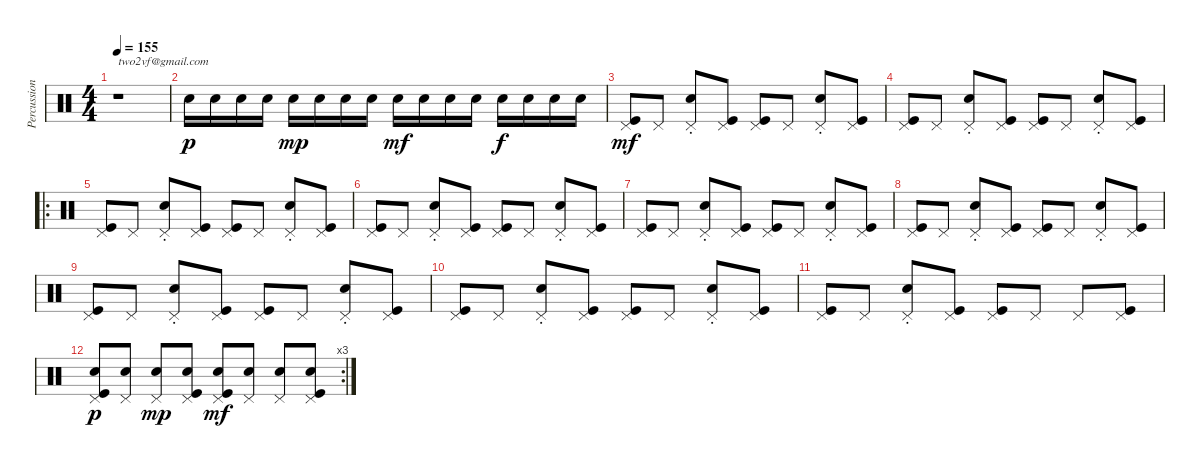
\track ("Percussions" "Percussion") {instrument percussion}
\staff {score}
\articulation defaults
\ts (4 4)
\tempo 155
\clef neutral
\ks c
r.1{txt "two2vf@gmail.com" dy p} |
"Snare (hit) 2".16 "Snare (hit) 2".16 "Snare (hit) 2".16 "Snare (hit) 2".16 "Snare (hit) 2".16{dy mp} "Snare (hit) 2".16 "Snare (hit) 2".16 "Snare (hit) 2".16 "Snare (hit) 2".16{dy mf} "Snare (hit) 2".16 "Snare (hit) 2".16 "Snare (hit) 2".16 "Snare (hit) 2".16{dy f} "Snare (hit) 2".16 "Snare (hit) 2".16 "Snare (hit) 2".16 |
("Pedal Hi-Hat (hit)" "Kick (hit)").8{dy mf} "Pedal Hi-Hat (hit)".8 ("Pedal Hi-Hat (hit)" "Electric Snare (hit)"{st}).8 ("Pedal Hi-Hat (hit)" "Kick (hit)").8 ("Pedal Hi-Hat (hit)" "Kick (hit)").8 "Pedal Hi-Hat (hit)".8 ("Pedal Hi-Hat (hit)" "Electric Snare (hit)"{st}).8 ("Pedal Hi-Hat (hit)" "Kick (hit)").8 |
("Pedal Hi-Hat (hit)" "Kick (hit)").8 "Pedal Hi-Hat (hit)".8 ("Pedal Hi-Hat (hit)" "Electric Snare (hit)"{st}).8 ("Pedal Hi-Hat (hit)" "Kick (hit)").8 ("Pedal Hi-Hat (hit)" "Kick (hit)").8 "Pedal Hi-Hat (hit)".8 ("Pedal Hi-Hat (hit)" "Electric Snare (hit)"{st}).8 ("Pedal Hi-Hat (hit)" "Kick (hit)").8 |
\ro
("Pedal Hi-Hat (hit)" "Kick (hit)").8 "Pedal Hi-Hat (hit)".8 ("Pedal Hi-Hat (hit)" "Electric Snare (hit)"{st}).8 ("Pedal Hi-Hat (hit)" "Kick (hit)").8 ("Pedal Hi-Hat (hit)" "Kick (hit)").8 "Pedal Hi-Hat (hit)".8 ("Pedal Hi-Hat (hit)" "Electric Snare (hit)"{st}).8 ("Pedal Hi-Hat (hit)" "Kick (hit)").8 |
("Pedal Hi-Hat (hit)" "Kick (hit)").8 "Pedal Hi-Hat (hit)".8 ("Pedal Hi-Hat (hit)" "Electric Snare (hit)"{st}).8 ("Pedal Hi-Hat (hit)" "Kick (hit)").8 ("Pedal Hi-Hat (hit)" "Kick (hit)").8 "Pedal Hi-Hat (hit)".8 ("Pedal Hi-Hat (hit)" "Electric Snare (hit)"{st}).8 ("Pedal Hi-Hat (hit)" "Kick (hit)").8 |
("Pedal Hi-Hat (hit)" "Kick (hit)").8 "Pedal Hi-Hat (hit)".8 ("Pedal Hi-Hat (hit)" "Electric Snare (hit)"{st}).8 ("Pedal Hi-Hat (hit)" "Kick (hit)").8 ("Pedal Hi-Hat (hit)" "Kick (hit)").8 "Pedal Hi-Hat (hit)".8 ("Pedal Hi-Hat (hit)" "Electric Snare (hit)"{st}).8 ("Pedal Hi-Hat (hit)" "Kick (hit)").8 |
("Pedal Hi-Hat (hit)" "Kick (hit)").8 "Pedal Hi-Hat (hit)".8 ("Pedal Hi-Hat (hit)" "Electric Snare (hit)"{st}).8 ("Pedal Hi-Hat (hit)" "Kick (hit)").8 ("Pedal Hi-Hat (hit)" "Kick (hit)").8 "Pedal Hi-Hat (hit)".8 ("Pedal Hi-Hat (hit)" "Electric Snare (hit)"{st}).8 ("Pedal Hi-Hat (hit)" "Kick (hit)").8 |
("Pedal Hi-Hat (hit)" "Kick (hit)").8 "Pedal Hi-Hat (hit)".8 ("Pedal Hi-Hat (hit)" "Electric Snare (hit)"{st}).8 ("Pedal Hi-Hat (hit)" "Kick (hit)").8 ("Pedal Hi-Hat (hit)" "Kick (hit)").8 "Pedal Hi-Hat (hit)".8 ("Pedal Hi-Hat (hit)" "Electric Snare (hit)"{st}).8 ("Pedal Hi-Hat (hit)" "Kick (hit)").8 |
("Pedal Hi-Hat (hit)" "Kick (hit)").8 "Pedal Hi-Hat (hit)".8 ("Pedal Hi-Hat (hit)" "Electric Snare (hit)"{st}).8 ("Pedal Hi-Hat (hit)" "Kick (hit)").8 ("Pedal Hi-Hat (hit)" "Kick (hit)").8 "Pedal Hi-Hat (hit)".8 ("Pedal Hi-Hat (hit)" "Electric Snare (hit)"{st}).8 ("Pedal Hi-Hat (hit)" "Kick (hit)").8 |
("Pedal Hi-Hat (hit)" "Kick (hit)").8 "Pedal Hi-Hat (hit)".8 ("Pedal Hi-Hat (hit)" "Electric Snare (hit)"{st}).8 ("Pedal Hi-Hat (hit)" "Kick (hit)").8 ("Pedal Hi-Hat (hit)" "Kick (hit)").8 "Pedal Hi-Hat (hit)".8 "Pedal Hi-Hat (hit)".8 ("Pedal Hi-Hat (hit)" "Kick (hit)").8 |
\rc 3
("Pedal Hi-Hat (hit)" "Snare (hit) 2" "Kick (hit)").8{dy p} ("Pedal Hi-Hat (hit)" "Snare (hit) 2").8 ("Pedal Hi-Hat (hit)" "Snare (hit) 2").8{dy mp} ("Pedal Hi-Hat (hit)" "Snare (hit) 2" "Kick (hit)").8 ("Pedal Hi-Hat (hit)" "Snare (hit) 2" "Kick (hit)").8{dy mf} ("Pedal Hi-Hat (hit)" "Snare (hit) 2").8 ("Pedal Hi-Hat (hit)" "Snare (hit) 2").8 ("Pedal Hi-Hat (hit)" "Snare (hit) 2" "Kick (hit)").8
